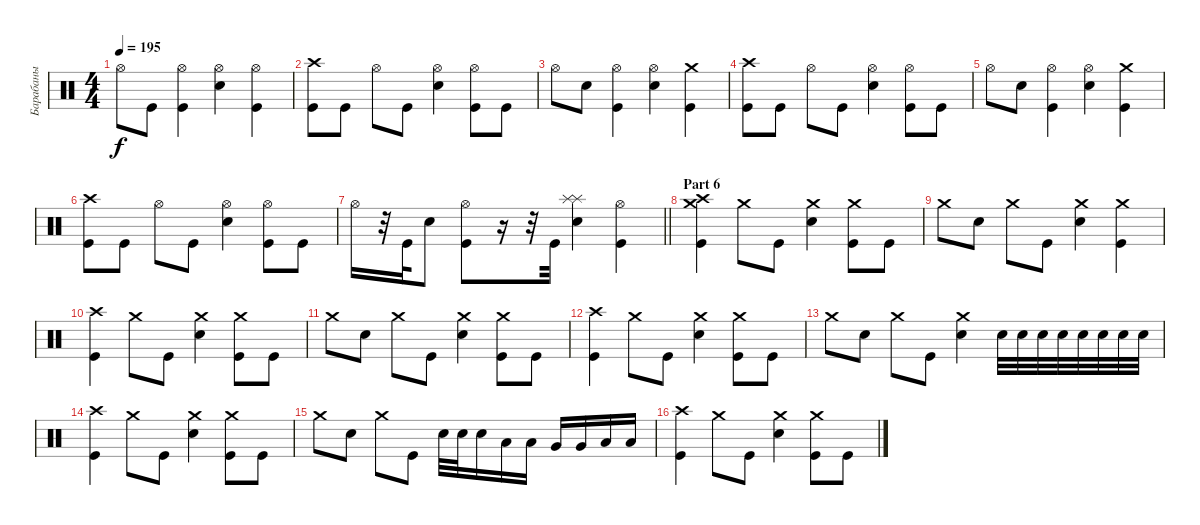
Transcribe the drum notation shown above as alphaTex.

\track ("Барабаны" "Барабаны") {instrument percussion}
\staff {score}
\articulation defaults
\ts (4 4)
\tempo 195
\clef neutral
\ks c "Hi-Hat (open)".8{dy f} "Kick (hit)".8
("Hi-Hat (open)" "Kick (hit)").4 ("Hi-Hat (open)" "Electric Snare (hit)").4 ("Hi-Hat (open)" "Kick (hit)").4 |
("Crash high (hit)" "Kick (hit)").8 "Kick (hit)".8 "Hi-Hat (open)".8 "Kick (hit)".8 ("Hi-Hat (open)" "Electric Snare (hit)").4 ("Hi-Hat (open)" "Kick (hit)").8 "Kick (hit)".8 |
"Hi-Hat (open)".8 "Electric Snare (hit)".8 ("Hi-Hat (open)" "Kick (hit)").4 ("Hi-Hat (open)" "Electric Snare (hit)").4 ("Crash medium (hit)" "Kick (hit)").4 |
("Crash high (hit)" "Kick (hit)").8 "Kick (hit)".8 "Hi-Hat (open)".8 "Kick (hit)".8 ("Hi-Hat (open)" "Electric Snare (hit)").4 ("Hi-Hat (open)" "Kick (hit)").8 "Kick (hit)".8 |
"Hi-Hat (open)".8 "Electric Snare (hit)".8 ("Hi-Hat (open)" "Kick (hit)").4 ("Hi-Hat (open)" "Electric Snare (hit)").4 ("Crash medium (hit)" "Kick (hit)").4 |
("Crash high (hit)" "Kick (hit)").8 "Kick (hit)".8 "Hi-Hat (open)".8 "Kick (hit)".8 ("Hi-Hat (open)" "Electric Snare (hit)").4 ("Hi-Hat (open)" "Kick (hit)").8 "Kick (hit)".8 |
\barLineRight lightlight "Hi-Hat (open)".16
r.32 "Kick (hit)".32 "Electric Snare (hit)".8 ("Hi-Hat (open)" "Kick (hit)").8 r.16 r.32 "Kick (hit)".32 ("Splash (hit)" "Splash (hit)" "Electric Snare (hit)").4 ("Hi-Hat (open)" "Kick (hit)").4 |
\section ("" "Part 6")
("Crash high (hit)" "Crash medium (hit)" "Kick (hit)").4 "Crash medium (hit)".8 "Kick (hit)".8 ("Crash medium (hit)" "Electric Snare (hit)").4 ("Crash medium (hit)" "Kick (hit)").8 "Kick (hit)".8 |
"Crash medium (hit)".8 "Electric Snare (hit)".8 "Crash medium (hit)".8 "Kick (hit)".8 ("Crash medium (hit)" "Electric Snare (hit)").4 ("Crash medium (hit)" "Kick (hit)").4 |
("Crash high (hit)" "Kick (hit)").4 "Crash medium (hit)".8 "Kick (hit)".8 ("Crash medium (hit)" "Electric Snare (hit)").4 ("Crash medium (hit)" "Kick (hit)").8 "Kick (hit)".8 |
"Crash medium (hit)".8 "Electric Snare (hit)".8 "Crash medium (hit)".8 "Kick (hit)".8 ("Crash medium (hit)" "Electric Snare (hit)").4 ("Crash medium (hit)" "Kick (hit)").8 "Kick (hit)".8 |
("Crash high (hit)" "Kick (hit)").4 "Crash medium (hit)".8 "Kick (hit)".8 ("Crash medium (hit)" "Electric Snare (hit)").4 ("Crash medium (hit)" "Kick (hit)").8 "Kick (hit)".8 |
"Crash medium (hit)".8 "Electric Snare (hit)".8 "Crash medium (hit)".8 "Kick (hit)".8 ("Crash medium (hit)" "Electric Snare (hit)").4 "Electric Snare (hit)".32 "Electric Snare (hit)".32 "Electric Snare (hit)".32 "Electric Snare (hit)".32 "Electric Snare (hit)".32 "Electric Snare (hit)".32 "Electric Snare (hit)".32 "Electric Snare (hit)".32 |
("Crash high (hit)" "Kick (hit)").4{volume 13} "Crash medium (hit)".8 "Kick (hit)".8 ("Crash medium (hit)" "Electric Snare (hit)").4 ("Crash medium (hit)" "Kick (hit)").8 "Kick (hit)".8 |
"Crash medium (hit)".8 "Electric Snare (hit)".8 "Crash medium (hit)".8 "Kick (hit)".8 "Electric Snare (hit)".32 "Electric Snare (hit)".32 "Electric Snare (hit)".16 "Low Tom (hit)".16 "Low Tom (hit)".16 "Very Low Tom (hit)".16 "Very Low Tom (hit)".16 "Low Floor Tom (hit)".16 "Low Floor Tom (hit)".16 |
("Crash high (hit)" "Kick (hit)").4 "Crash medium (hit)".8 "Kick (hit)".8 ("Crash medium (hit)" "Electric Snare (hit)").4 ("Crash medium (hit)" "Kick (hit)").8 "Kick (hit)".8
